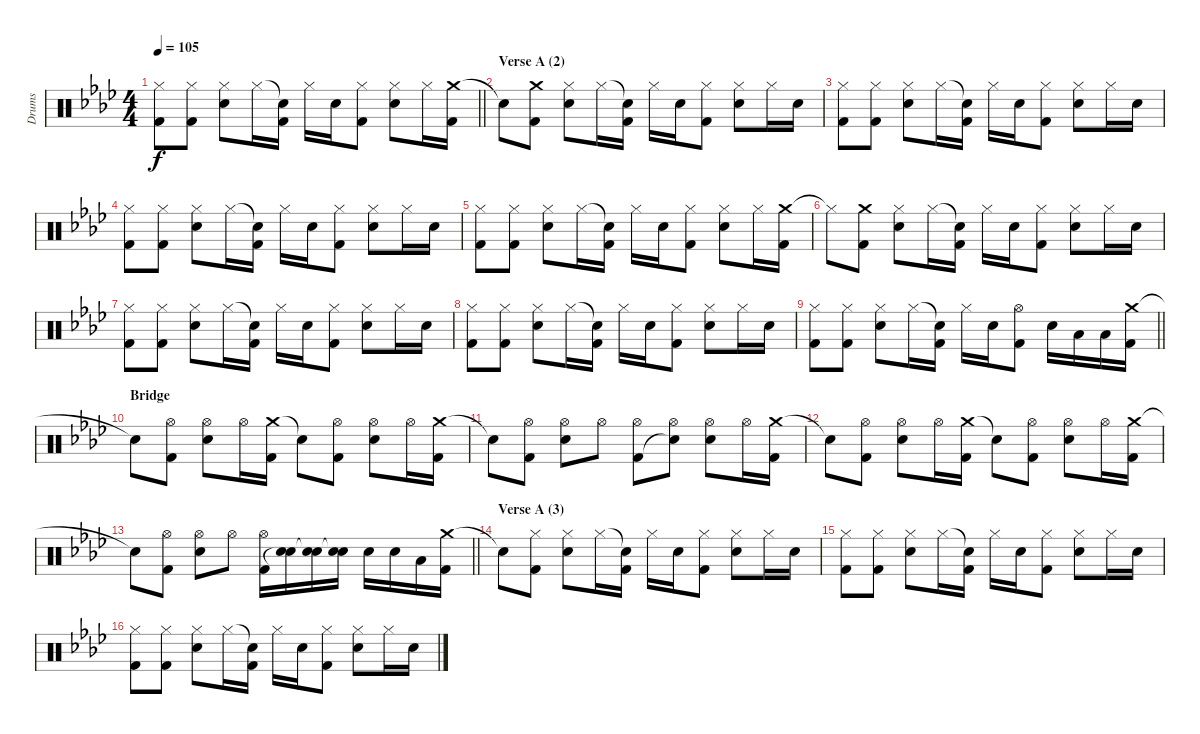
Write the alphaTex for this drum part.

\track ("Drums" "Drums") {instrument percussion}
\staff {score}
\articulation defaults
\ts (4 4)
\tempo 105
\clef neutral
\barLineRight lightlight
\ks fminor
("Hi-Hat (closed)" "Kick (hit) 2").8{dy f} ("Hi-Hat (closed)" "Kick (hit) 2").8 ("Hi-Hat (closed)" "Electric Snare (hit)").8 "Hi-Hat (closed)".16 ("Snare (hit)"{t} "Kick (hit) 2").16 "Hi-Hat (closed)".16 "Electric Snare (hit)".16 ("Hi-Hat (closed)" "Kick (hit) 2").8 ("Hi-Hat (closed)" "Electric Snare (hit)").8 "Hi-Hat (closed)".16 ("Crash medium (hit)" "Kick (hit) 2").16 |
\section ("" "Verse A (2)")
"Snare (hit)"{t}.8 ("Crash medium (hit)" "Kick (hit) 2").8 ("Hi-Hat (closed)" "Electric Snare (hit)").8 "Hi-Hat (closed)".16 ("Snare (hit)"{t} "Kick (hit) 2").16 "Hi-Hat (closed)".16 "Electric Snare (hit)".16 ("Hi-Hat (closed)" "Kick (hit) 2").8 ("Hi-Hat (closed)" "Electric Snare (hit)").8 "Hi-Hat (closed)".16 "Electric Snare (hit)".16 |
("Hi-Hat (closed)" "Kick (hit) 2").8 ("Hi-Hat (closed)" "Kick (hit) 2").8 ("Hi-Hat (closed)" "Electric Snare (hit)").8 "Hi-Hat (closed)".16 ("Snare (hit)"{t} "Kick (hit) 2").16 "Hi-Hat (closed)".16 "Electric Snare (hit)".16 ("Hi-Hat (closed)" "Kick (hit) 2").8 ("Hi-Hat (closed)" "Electric Snare (hit)").8 "Hi-Hat (closed)".16 "Electric Snare (hit)".16 |
("Hi-Hat (closed)" "Kick (hit) 2").8 ("Hi-Hat (closed)" "Kick (hit) 2").8 ("Hi-Hat (closed)" "Electric Snare (hit)").8 "Hi-Hat (closed)".16 ("Snare (hit)"{t} "Kick (hit) 2").16 "Hi-Hat (closed)".16 "Electric Snare (hit)".16 ("Hi-Hat (closed)" "Kick (hit) 2").8 ("Hi-Hat (closed)" "Electric Snare (hit)").8 "Hi-Hat (closed)".16 "Electric Snare (hit)".16 |
("Hi-Hat (closed)" "Kick (hit) 2").8 ("Hi-Hat (closed)" "Kick (hit) 2").8 ("Hi-Hat (closed)" "Electric Snare (hit)").8 "Hi-Hat (closed)".16 ("Snare (hit)"{t} "Kick (hit) 2").16 "Hi-Hat (closed)".16 "Electric Snare (hit)".16 ("Hi-Hat (closed)" "Kick (hit) 2").8 ("Hi-Hat (closed)" "Electric Snare (hit)").8 "Hi-Hat (closed)".16 ("Crash medium (hit)" "Kick (hit) 2").16 |
"Hi-Hat (closed)"{t}.8 ("Crash medium (hit)" "Kick (hit) 2").8 ("Hi-Hat (closed)" "Electric Snare (hit)").8 "Hi-Hat (closed)".16 ("Snare (hit)"{t} "Kick (hit) 2").16 "Hi-Hat (closed)".16 "Electric Snare (hit)".16 ("Hi-Hat (closed)" "Kick (hit) 2").8 ("Hi-Hat (closed)" "Electric Snare (hit)").8 "Hi-Hat (closed)".16 "Electric Snare (hit)".16 |
("Hi-Hat (closed)" "Kick (hit) 2").8 ("Hi-Hat (closed)" "Kick (hit) 2").8 ("Hi-Hat (closed)" "Electric Snare (hit)").8 "Hi-Hat (closed)".16 ("Snare (hit)"{t} "Kick (hit) 2").16 "Hi-Hat (closed)".16 "Electric Snare (hit)".16 ("Hi-Hat (closed)" "Kick (hit) 2").8 ("Hi-Hat (closed)" "Electric Snare (hit)").8 "Hi-Hat (closed)".16 "Electric Snare (hit)".16 |
("Hi-Hat (closed)" "Kick (hit) 2").8 ("Hi-Hat (closed)" "Kick (hit) 2").8 ("Hi-Hat (closed)" "Electric Snare (hit)").8 "Hi-Hat (closed)".16 ("Snare (hit)"{t} "Kick (hit) 2").16 "Hi-Hat (closed)".16 "Electric Snare (hit)".16 ("Hi-Hat (closed)" "Kick (hit) 2").8 ("Hi-Hat (closed)" "Electric Snare (hit)").8 "Hi-Hat (closed)".16 "Electric Snare (hit)".16 |
\barLineRight lightlight
("Hi-Hat (closed)" "Kick (hit) 2").8 ("Hi-Hat (closed)" "Kick (hit) 2").8 ("Hi-Hat (closed)" "Electric Snare (hit)").8 "Hi-Hat (closed)".16 ("Snare (hit)"{t} "Kick (hit) 2").16 "Hi-Hat (closed)".16 "Electric Snare (hit)".16 ("Hi-Hat (open)" "Kick (hit) 2").8 "Electric Snare (hit)".16 "Low Tom (hit)".16 "Low Floor Tom (hit)".16 ("Crash medium (hit)" "Kick (hit) 2").16 |
\section ("" "Bridge")
"Snare (hit)"{t}.8 ("Hi-Hat (open)" "Kick (hit) 2").8 ("Hi-Hat (open)" "Electric Snare (hit)").8 "Hi-Hat (open)".16 ("Crash medium (hit)" "Kick (hit) 2").16 "Snare (hit)"{t}.8 ("Hi-Hat (open)" "Kick (hit) 2").8 ("Hi-Hat (open)" "Electric Snare (hit)").8 "Hi-Hat (open)".16 ("Crash medium (hit)" "Kick (hit) 2").16 |
"Snare (hit)"{t}.8 ("Hi-Hat (open)" "Kick (hit) 2").8 ("Hi-Hat (open)" "Electric Snare (hit)").8 "Hi-Hat (open)".8 ("Hi-Hat (open)" "Kick (hit) 2").8 ("Hi-Hat (open)" "Snare (hit)"{t}).8 ("Hi-Hat (open)" "Electric Snare (hit)").8 "Hi-Hat (open)".16 ("Crash medium (hit)" "Kick (hit) 2").16 |
"Snare (hit)"{t}.8 ("Hi-Hat (open)" "Kick (hit) 2").8 ("Hi-Hat (open)" "Electric Snare (hit)").8 "Hi-Hat (open)".16 ("Crash medium (hit)" "Kick (hit) 2").16 "Snare (hit)"{t}.8 ("Hi-Hat (open)" "Kick (hit) 2").8 ("Hi-Hat (open)" "Electric Snare (hit)").8 "Hi-Hat (open)".16 ("Crash medium (hit)" "Kick (hit) 2").16 |
\barLineRight lightlight "Snare (hit)"{t}.8
("Hi-Hat (open)" "Kick (hit) 2").8 ("Hi-Hat (open)" "Electric Snare (hit)").8 "Hi-Hat (open)".8 ("Hi-Hat (open)" "Kick (hit) 2").16 ("Electric Snare (hit)" "Snare (hit)"{t}).16 ("Electric Snare (hit)" "Snare (hit)"{t}).16 ("Electric Snare (hit)" "Snare (hit)"{t}).16 "Electric Snare (hit)".16 "Electric Snare (hit)".16 "Low Tom (hit)".16 ("Crash medium (hit)" "Kick (hit) 2").16 |
\section ("" "Verse A (3)")
"Snare (hit)"{t}.8 ("Hi-Hat (closed)" "Kick (hit) 2").8 ("Hi-Hat (closed)" "Electric Snare (hit)").8 "Hi-Hat (closed)".16 ("Snare (hit)"{t} "Kick (hit) 2").16 "Hi-Hat (closed)".16 "Electric Snare (hit)".16 ("Hi-Hat (closed)" "Kick (hit) 2").8 ("Hi-Hat (closed)" "Electric Snare (hit)").8 "Hi-Hat (closed)".16 "Electric Snare (hit)".16 |
("Hi-Hat (closed)" "Kick (hit) 2").8 ("Hi-Hat (closed)" "Kick (hit) 2").8 ("Hi-Hat (closed)" "Electric Snare (hit)").8 "Hi-Hat (closed)".16 ("Snare (hit)"{t} "Kick (hit) 2").16 "Hi-Hat (closed)".16 "Electric Snare (hit)".16 ("Hi-Hat (closed)" "Kick (hit) 2").8 ("Hi-Hat (closed)" "Electric Snare (hit)").8 "Hi-Hat (closed)".16 "Electric Snare (hit)".16 |
("Hi-Hat (closed)" "Kick (hit) 2").8 ("Hi-Hat (closed)" "Kick (hit) 2").8 ("Hi-Hat (closed)" "Electric Snare (hit)").8 "Hi-Hat (closed)".16 ("Snare (hit)"{t} "Kick (hit) 2").16 "Hi-Hat (closed)".16 "Electric Snare (hit)".16 ("Hi-Hat (closed)" "Kick (hit) 2").8 ("Hi-Hat (closed)" "Electric Snare (hit)").8 "Hi-Hat (closed)".16 "Electric Snare (hit)".16
